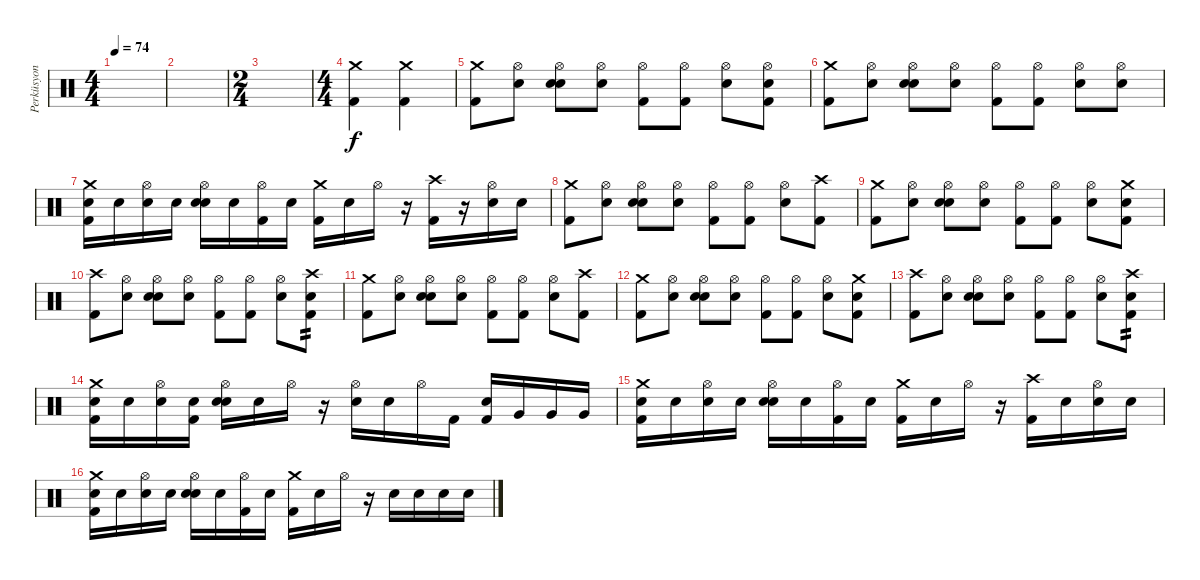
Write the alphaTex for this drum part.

\track ("Perküsyon" "Perküsyon") {instrument percussion}
\staff {score}
\articulation defaults
\ts (4 4)
\tempo 74
\clef neutral
\ks c
|
|
\ts (2 4)
|
\ts (4 4)
("Crash medium (hit)" "Kick (hit) 2").4 ("Crash medium (hit)" "Kick (hit) 2").4 |
("Crash medium (hit)" "Kick (hit) 2").8 ("Hi-Hat (open)" "Snare (hit)").8 ("Hi-Hat (open)" "Electric Snare (hit)" "Snare (hit)").8 ("Hi-Hat (open)" "Snare (hit)").8 ("Hi-Hat (open)" "Kick (hit) 2").8 ("Hi-Hat (open)" "Kick (hit) 2").8 ("Hi-Hat (open)" "Electric Snare (hit)").8 ("Hi-Hat (open)" "Snare (hit)" "Kick (hit) 2").8 |
("Crash medium (hit)" "Kick (hit) 2").8 ("Hi-Hat (open)" "Snare (hit)").8 ("Hi-Hat (open)" "Electric Snare (hit)" "Snare (hit)").8 ("Hi-Hat (open)" "Snare (hit)").8 ("Hi-Hat (open)" "Kick (hit) 2").8 ("Hi-Hat (open)" "Kick (hit) 2").8 ("Hi-Hat (open)" "Electric Snare (hit)").8 ("Hi-Hat (open)" "Snare (hit)").8 |
("Crash medium (hit)" "Snare (hit)" "Kick (hit) 2").16 "Snare (hit)".16 ("Hi-Hat (open)" "Snare (hit)").16 "Snare (hit)".16 ("Hi-Hat (open)" "Electric Snare (hit)" "Snare (hit)").16 "Snare (hit)".16 ("Hi-Hat (open)" "Kick (hit) 2").16 "Electric Snare (hit)".16 ("Crash medium (hit)" "Kick (hit) 2").16 "Snare (hit)".16 "Hi-Hat (open)".16 r.16 ("Crash high (hit)" "Kick (hit) 2").16 r.16 ("Hi-Hat (open)" "Electric Snare (hit)").16 "Electric Snare (hit)".16 |
("Crash medium (hit)" "Kick (hit) 2").8 ("Hi-Hat (open)" "Snare (hit)").8 ("Hi-Hat (open)" "Electric Snare (hit)" "Snare (hit)").8 ("Hi-Hat (open)" "Snare (hit)").8 ("Hi-Hat (open)" "Kick (hit) 2").8 ("Hi-Hat (open)" "Kick (hit) 2").8 ("Hi-Hat (open)" "Electric Snare (hit)").8 ("Crash high (hit)" "Kick (hit) 2").8 |
("Crash medium (hit)" "Kick (hit) 2").8 ("Hi-Hat (open)" "Snare (hit)").8 ("Hi-Hat (open)" "Electric Snare (hit)" "Snare (hit)").8 ("Hi-Hat (open)" "Snare (hit)").8 ("Hi-Hat (open)" "Kick (hit) 2").8 ("Hi-Hat (open)" "Kick (hit) 2").8 ("Hi-Hat (open)" "Electric Snare (hit)").8 ("Crash medium (hit)" "Snare (hit)" "Kick (hit) 2").8 |
("Crash high (hit)" "Kick (hit) 2").8 ("Hi-Hat (open)" "Snare (hit)").8 ("Hi-Hat (open)" "Electric Snare (hit)" "Snare (hit)").8 ("Hi-Hat (open)" "Snare (hit)").8 ("Hi-Hat (open)" "Kick (hit) 2").8 ("Hi-Hat (open)" "Kick (hit) 2").8 ("Hi-Hat (open)" "Electric Snare (hit)").8 ("Crash high (hit)" "Kick (hit) 2" "Electric Snare (hit)").8{tp 2} |
("Crash medium (hit)" "Kick (hit) 2").8 ("Hi-Hat (open)" "Snare (hit)").8 ("Hi-Hat (open)" "Electric Snare (hit)" "Snare (hit)").8 ("Hi-Hat (open)" "Snare (hit)").8 ("Hi-Hat (open)" "Kick (hit) 2").8 ("Hi-Hat (open)" "Kick (hit) 2").8 ("Hi-Hat (open)" "Electric Snare (hit)").8 ("Crash high (hit)" "Kick (hit) 2").8 |
("Crash medium (hit)" "Kick (hit) 2").8 ("Hi-Hat (open)" "Snare (hit)").8 ("Hi-Hat (open)" "Electric Snare (hit)" "Snare (hit)").8 ("Hi-Hat (open)" "Snare (hit)").8 ("Hi-Hat (open)" "Kick (hit) 2").8 ("Hi-Hat (open)" "Kick (hit) 2").8 ("Hi-Hat (open)" "Electric Snare (hit)").8 ("Crash medium (hit)" "Snare (hit)" "Kick (hit) 2").8 |
("Crash high (hit)" "Kick (hit) 2").8 ("Hi-Hat (open)" "Snare (hit)").8 ("Hi-Hat (open)" "Electric Snare (hit)" "Snare (hit)").8 ("Hi-Hat (open)" "Snare (hit)").8 ("Hi-Hat (open)" "Kick (hit) 2").8 ("Hi-Hat (open)" "Kick (hit) 2").8 ("Hi-Hat (open)" "Electric Snare (hit)").8 ("Crash high (hit)" "Kick (hit) 2" "Electric Snare (hit)").8{tp 2} |
("Crash medium (hit)" "Snare (hit)" "Kick (hit) 2").16 "Snare (hit)".16 ("Hi-Hat (open)" "Snare (hit)").16 ("Snare (hit)" "Kick (hit) 2").16 ("Hi-Hat (open)" "Electric Snare (hit)" "Snare (hit)").16 "Snare (hit)".16 "Hi-Hat (open)".16 r.16 ("Hi-Hat (open)" "Electric Snare (hit)").16 "Snare (hit)".16 "Hi-Hat (open)".16 "Kick (hit) 2".16 ("Electric Snare (hit)" "Kick (hit) 2").16 "Very Low Tom (hit)".16 "Very Low Tom (hit)".16 "Very Low Tom (hit)".16 |
("Crash medium (hit)" "Snare (hit)" "Kick (hit) 2").16 "Snare (hit)".16 ("Hi-Hat (open)" "Snare (hit)").16 "Snare (hit)".16 ("Hi-Hat (open)" "Electric Snare (hit)" "Snare (hit)").16 "Snare (hit)".16 ("Hi-Hat (open)" "Kick (hit) 2").16 "Electric Snare (hit)".16 ("Crash medium (hit)" "Kick (hit) 2").16 "Snare (hit)".16 "Hi-Hat (open)".16 r.16 ("Crash high (hit)" "Kick (hit) 2").16 "Electric Snare (hit)".16 ("Hi-Hat (open)" "Electric Snare (hit)").16 "Electric Snare (hit)".16 |
("Crash medium (hit)" "Snare (hit)" "Kick (hit) 2").16 "Snare (hit)".16 ("Hi-Hat (open)" "Snare (hit)").16 "Snare (hit)".16 ("Hi-Hat (open)" "Electric Snare (hit)" "Snare (hit)").16 "Snare (hit)".16 ("Hi-Hat (open)" "Kick (hit) 2").16 "Electric Snare (hit)".16 ("Crash medium (hit)" "Kick (hit) 2").16 "Snare (hit)".16 "Hi-Hat (open)".16 r.16 "Electric Snare (hit)".16 "Electric Snare (hit)".16 "Electric Snare (hit)".16 "Electric Snare (hit)".16
